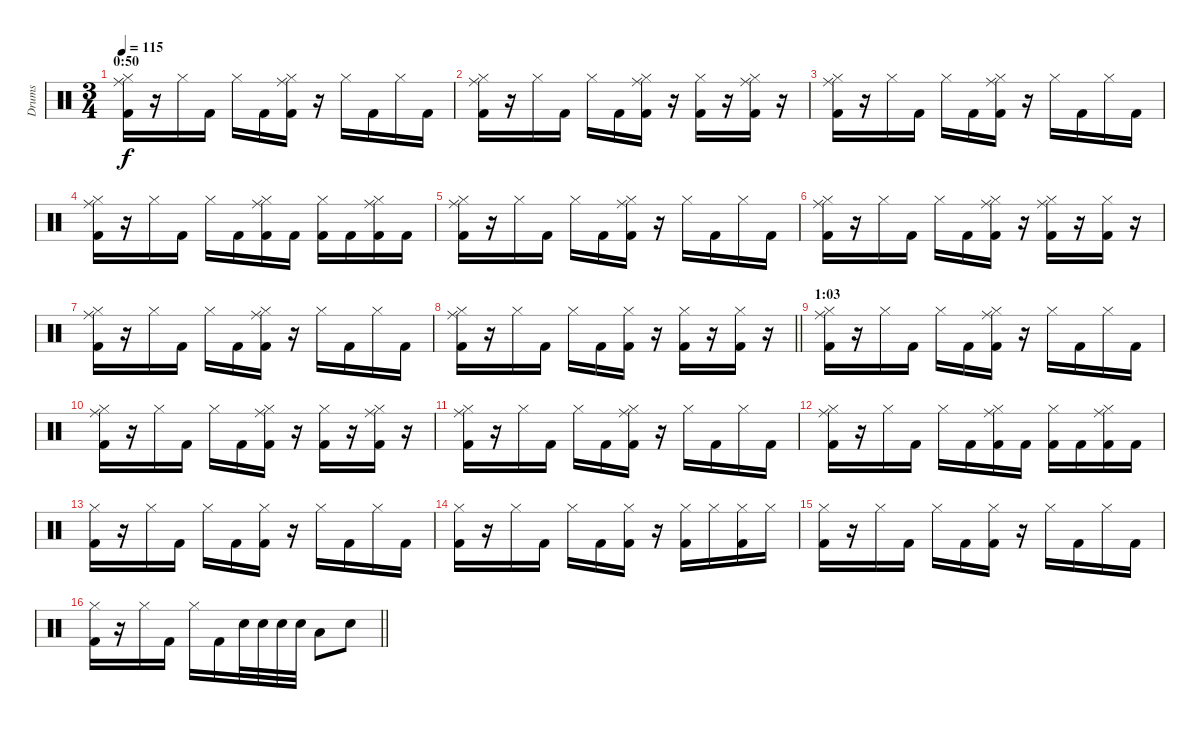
\track ("Drums" "Drums") {instrument percussion}
\staff {score}
\articulation defaults
\ts (3 4)
\section ("" "0:50")
\tempo 115
\clef neutral
\ks c
("Hi-Hat (closed)" "Ride (middle)" "Kick (hit) 2").16{dy f} r.16 "Hi-Hat (closed)".16 "Kick (hit) 2".16 "Hi-Hat (closed)".16 "Kick (hit) 2".16 ("Hi-Hat (closed)" "Ride (middle)" "Kick (hit) 2").16 r.16 "Hi-Hat (closed)".16 "Kick (hit) 2".16 "Hi-Hat (closed)".16 "Kick (hit) 2".16 |
("Hi-Hat (closed)" "Ride (middle)" "Kick (hit) 2").16 r.16 "Hi-Hat (closed)".16 "Kick (hit) 2".16 "Hi-Hat (closed)".16 "Kick (hit) 2".16 ("Hi-Hat (closed)" "Ride (middle)" "Kick (hit) 2").16 r.16 ("Hi-Hat (closed)" "Kick (hit) 2").16 r.16 ("Hi-Hat (closed)" "Ride (middle)" "Kick (hit) 2").16 r.16 |
("Hi-Hat (closed)" "Ride (middle)" "Kick (hit) 2").16 r.16 "Hi-Hat (closed)".16 "Kick (hit) 2".16 "Hi-Hat (closed)".16 "Kick (hit) 2".16 ("Hi-Hat (closed)" "Ride (middle)" "Kick (hit) 2").16 r.16 "Hi-Hat (closed)".16 "Kick (hit) 2".16 "Hi-Hat (closed)".16 "Kick (hit) 2".16 |
("Hi-Hat (closed)" "Ride (middle)" "Kick (hit) 2").16 r.16 "Hi-Hat (closed)".16 "Kick (hit) 2".16 "Hi-Hat (closed)".16 "Kick (hit) 2".16 ("Hi-Hat (closed)" "Ride (middle)" "Kick (hit) 2").16 "Kick (hit) 2".16 ("Hi-Hat (closed)" "Kick (hit) 2").16 "Kick (hit) 2".16 ("Hi-Hat (closed)" "Ride (middle)" "Kick (hit) 2").16 "Kick (hit) 2".16 |
("Hi-Hat (closed)" "Ride (middle)" "Kick (hit) 2").16 r.16 "Hi-Hat (closed)".16 "Kick (hit) 2".16 "Hi-Hat (closed)".16 "Kick (hit) 2".16 ("Hi-Hat (closed)" "Ride (middle)" "Kick (hit) 2").16 r.16 "Hi-Hat (closed)".16 "Kick (hit) 2".16 "Hi-Hat (closed)".16 "Kick (hit) 2".16 |
("Hi-Hat (closed)" "Ride (middle)" "Kick (hit) 2").16 r.16 "Hi-Hat (closed)".16 "Kick (hit) 2".16 "Hi-Hat (closed)".16 "Kick (hit) 2".16 ("Hi-Hat (closed)" "Ride (middle)" "Kick (hit) 2").16 r.16 ("Hi-Hat (closed)" "Ride (middle)" "Kick (hit) 2").16 r.16 ("Hi-Hat (closed)" "Kick (hit) 2").16 r.16 |
("Hi-Hat (closed)" "Ride (middle)" "Kick (hit) 2").16 r.16 "Hi-Hat (closed)".16 "Kick (hit) 2".16 "Hi-Hat (closed)".16 "Kick (hit) 2".16 ("Hi-Hat (closed)" "Ride (middle)" "Kick (hit) 2").16 r.16 "Hi-Hat (closed)".16 "Kick (hit) 2".16 "Hi-Hat (closed)".16 "Kick (hit) 2".16 |
\barLineRight lightlight
("Hi-Hat (closed)" "Ride (middle)" "Kick (hit) 2").16 r.16 "Hi-Hat (closed)".16 "Kick (hit) 2".16 "Hi-Hat (closed)".16 "Kick (hit) 2".16 ("Hi-Hat (closed)" "Kick (hit) 2").16 r.16 ("Hi-Hat (closed)" "Kick (hit) 2").16 r.16 ("Hi-Hat (closed)" "Kick (hit) 2").16 r.16 |
\section ("" "1:03")
("Hi-Hat (closed)" "Ride (middle)" "Kick (hit) 2").16 r.16 "Hi-Hat (closed)".16 "Kick (hit) 2".16 "Hi-Hat (closed)".16 "Kick (hit) 2".16 ("Hi-Hat (closed)" "Ride (middle)" "Kick (hit) 2").16 r.16 "Hi-Hat (closed)".16 "Kick (hit) 2".16 "Hi-Hat (closed)".16 "Kick (hit) 2".16 |
("Hi-Hat (closed)" "Ride (middle)" "Kick (hit) 2").16 r.16 "Hi-Hat (closed)".16 "Kick (hit) 2".16 "Hi-Hat (closed)".16 "Kick (hit) 2".16 ("Hi-Hat (closed)" "Ride (middle)" "Kick (hit) 2").16 r.16 ("Hi-Hat (closed)" "Kick (hit) 2").16 r.16 ("Hi-Hat (closed)" "Ride (middle)" "Kick (hit) 2").16 r.16 |
("Hi-Hat (closed)" "Ride (middle)" "Kick (hit) 2").16 r.16 "Hi-Hat (closed)".16 "Kick (hit) 2".16 "Hi-Hat (closed)".16 "Kick (hit) 2".16 ("Hi-Hat (closed)" "Ride (middle)" "Kick (hit) 2").16 r.16 "Hi-Hat (closed)".16 "Kick (hit) 2".16 "Hi-Hat (closed)".16 "Kick (hit) 2".16 |
("Hi-Hat (closed)" "Ride (middle)" "Kick (hit) 2").16 r.16 "Hi-Hat (closed)".16 "Kick (hit) 2".16 "Hi-Hat (closed)".16 "Kick (hit) 2".16 ("Hi-Hat (closed)" "Ride (middle)" "Kick (hit) 2").16 "Kick (hit) 2".16 ("Hi-Hat (closed)" "Kick (hit) 2").16 "Kick (hit) 2".16 ("Hi-Hat (closed)" "Ride (middle)" "Kick (hit) 2").16 "Kick (hit) 2".16 |
("Hi-Hat (closed)" "Kick (hit) 2").16 r.16 "Hi-Hat (closed)".16 "Kick (hit) 2".16 "Hi-Hat (closed)".16 "Kick (hit) 2".16 ("Hi-Hat (closed)" "Kick (hit) 2").16 r.16 "Hi-Hat (closed)".16 "Kick (hit) 2".16 "Hi-Hat (closed)".16 "Kick (hit) 2".16 |
("Hi-Hat (closed)" "Kick (hit) 2").16 r.16 "Hi-Hat (closed)".16 "Kick (hit) 2".16 "Hi-Hat (closed)".16 "Kick (hit) 2".16 ("Hi-Hat (closed)" "Kick (hit) 2").16 r.16 ("Hi-Hat (closed)" "Kick (hit) 2").16 "Hi-Hat (closed)".16 ("Hi-Hat (closed)" "Kick (hit) 2").16 "Hi-Hat (closed)".16 |
("Hi-Hat (closed)" "Kick (hit) 2").16{volume 3} r.16 "Hi-Hat (closed)".16 "Kick (hit) 2".16 "Hi-Hat (closed)".16 "Kick (hit) 2".16 ("Hi-Hat (closed)" "Kick (hit) 2").16 r.16 "Hi-Hat (closed)".16 "Kick (hit) 2".16 "Hi-Hat (closed)".16 "Kick (hit) 2".16 |
\barLineRight lightlight
("Hi-Hat (closed)" "Kick (hit) 2").16 r.16 "Hi-Hat (closed)".16 "Kick (hit) 2".16 "Hi-Hat (closed)".16 "Kick (hit) 2".16 "Electric Snare (hit)".32{volume 12} "Electric Snare (hit)".32 "Electric Snare (hit)".32 "Electric Snare (hit)".32 "Low Tom (hit)".8 "Electric Snare (hit)".8
